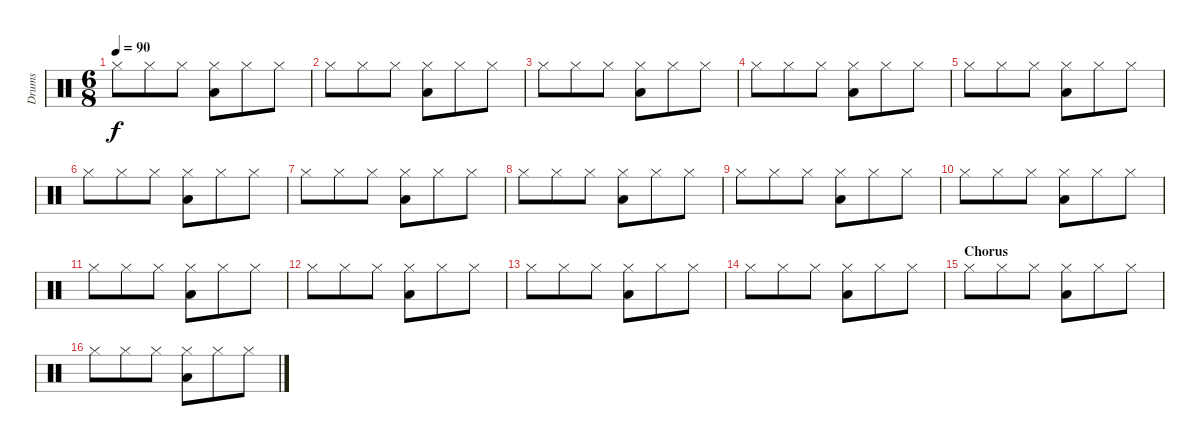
\track ("Drums" "Drums") {instrument percussion}
\staff {score}
\articulation defaults
\ts (6 8)
\tempo 90
\clef neutral
\ks c "Hi-Hat (closed)".8{dy f} "Hi-Hat (closed)".8 "Hi-Hat (closed)".8
("Hi-Hat (closed)" "Low Floor Tom (hit)").8 "Hi-Hat (closed)".8 "Hi-Hat (closed)".8 |
"Hi-Hat (closed)".8 "Hi-Hat (closed)".8 "Hi-Hat (closed)".8 ("Hi-Hat (closed)" "Low Floor Tom (hit)").8 "Hi-Hat (closed)".8 "Hi-Hat (closed)".8 |
"Hi-Hat (closed)".8 "Hi-Hat (closed)".8 "Hi-Hat (closed)".8 ("Hi-Hat (closed)" "Low Floor Tom (hit)").8 "Hi-Hat (closed)".8 "Hi-Hat (closed)".8 |
"Hi-Hat (closed)".8 "Hi-Hat (closed)".8 "Hi-Hat (closed)".8 ("Hi-Hat (closed)" "Low Floor Tom (hit)").8 "Hi-Hat (closed)".8 "Hi-Hat (closed)".8 |
"Hi-Hat (closed)".8 "Hi-Hat (closed)".8 "Hi-Hat (closed)".8 ("Hi-Hat (closed)" "Low Floor Tom (hit)").8 "Hi-Hat (closed)".8 "Hi-Hat (closed)".8 |
"Hi-Hat (closed)".8 "Hi-Hat (closed)".8 "Hi-Hat (closed)".8 ("Hi-Hat (closed)" "Low Floor Tom (hit)").8 "Hi-Hat (closed)".8 "Hi-Hat (closed)".8 |
"Hi-Hat (closed)".8 "Hi-Hat (closed)".8 "Hi-Hat (closed)".8 ("Hi-Hat (closed)" "Low Floor Tom (hit)").8 "Hi-Hat (closed)".8 "Hi-Hat (closed)".8 |
"Hi-Hat (closed)".8 "Hi-Hat (closed)".8 "Hi-Hat (closed)".8 ("Hi-Hat (closed)" "Low Floor Tom (hit)").8 "Hi-Hat (closed)".8 "Hi-Hat (closed)".8 |
"Hi-Hat (closed)".8 "Hi-Hat (closed)".8 "Hi-Hat (closed)".8 ("Hi-Hat (closed)" "Low Floor Tom (hit)").8 "Hi-Hat (closed)".8 "Hi-Hat (closed)".8 |
"Hi-Hat (closed)".8 "Hi-Hat (closed)".8 "Hi-Hat (closed)".8 ("Hi-Hat (closed)" "Low Floor Tom (hit)").8 "Hi-Hat (closed)".8 "Hi-Hat (closed)".8 |
"Hi-Hat (closed)".8 "Hi-Hat (closed)".8 "Hi-Hat (closed)".8 ("Hi-Hat (closed)" "Low Floor Tom (hit)").8 "Hi-Hat (closed)".8 "Hi-Hat (closed)".8 |
"Hi-Hat (closed)".8 "Hi-Hat (closed)".8 "Hi-Hat (closed)".8 ("Hi-Hat (closed)" "Low Floor Tom (hit)").8 "Hi-Hat (closed)".8 "Hi-Hat (closed)".8 |
"Hi-Hat (closed)".8 "Hi-Hat (closed)".8 "Hi-Hat (closed)".8 ("Hi-Hat (closed)" "Low Floor Tom (hit)").8 "Hi-Hat (closed)".8 "Hi-Hat (closed)".8 |
"Hi-Hat (closed)".8 "Hi-Hat (closed)".8 "Hi-Hat (closed)".8 ("Hi-Hat (closed)" "Low Floor Tom (hit)").8 "Hi-Hat (closed)".8 "Hi-Hat (closed)".8 |
\section ("" "Chorus")
"Hi-Hat (closed)".8 "Hi-Hat (closed)".8 "Hi-Hat (closed)".8 ("Hi-Hat (closed)" "Low Floor Tom (hit)").8 "Hi-Hat (closed)".8 "Hi-Hat (closed)".8 |
"Hi-Hat (closed)".8 "Hi-Hat (closed)".8 "Hi-Hat (closed)".8 ("Hi-Hat (closed)" "Low Floor Tom (hit)").8 "Hi-Hat (closed)".8 "Hi-Hat (closed)".8
